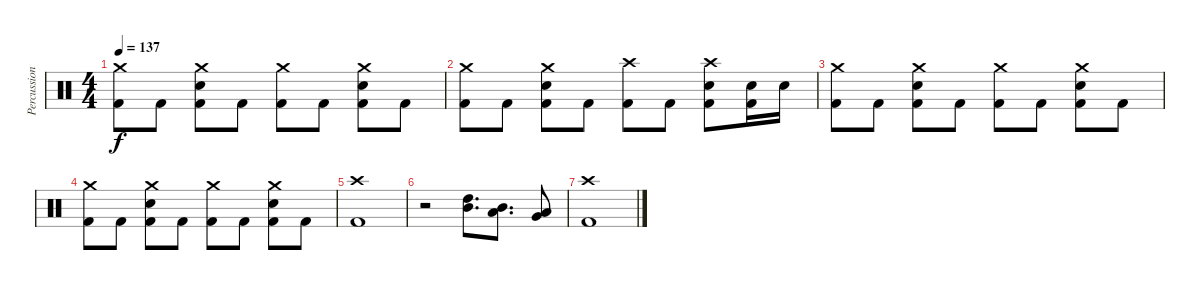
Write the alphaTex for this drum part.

\track ("Percussion" "Percussion") {instrument percussion}
\staff {score}
\articulation defaults
\ts (4 4)
\tempo 137
\clef neutral
\ks c
("Crash medium (hit)" "Kick (hit) 2").8{dy f} "Kick (hit) 2".8 ("Crash medium (hit)" "Snare (hit) 2" "Kick (hit) 2").8 "Kick (hit) 2".8 ("Crash medium (hit)" "Kick (hit) 2").8 "Kick (hit) 2".8 ("Crash medium (hit)" "Snare (hit) 2" "Kick (hit) 2").8 "Kick (hit) 2".8 |
("Crash medium (hit)" "Kick (hit) 2").8 "Kick (hit) 2".8 ("Crash medium (hit)" "Snare (hit) 2" "Kick (hit) 2").8 "Kick (hit) 2".8 ("Crash high (hit)" "Kick (hit) 2").8 "Kick (hit) 2".8 ("Crash high (hit)" "Snare (hit) 2" "Kick (hit) 2").8 ("Snare (hit) 2" "Kick (hit) 2").16 "Snare (hit) 2".16 |
("Crash medium (hit)" "Kick (hit) 2").8 "Kick (hit) 2".8 ("Crash medium (hit)" "Snare (hit) 2" "Kick (hit) 2").8 "Kick (hit) 2".8 ("Crash medium (hit)" "Kick (hit) 2").8 "Kick (hit) 2".8 ("Crash medium (hit)" "Snare (hit) 2" "Kick (hit) 2").8 "Kick (hit) 2".8 |
("Crash medium (hit)" "Kick (hit) 2").8 "Kick (hit) 2".8 ("Crash medium (hit)" "Snare (hit) 2" "Kick (hit) 2").8 "Kick (hit) 2".8 ("Crash medium (hit)" "Kick (hit) 2").8 "Kick (hit) 2".8 ("Crash medium (hit)" "Snare (hit) 2" "Kick (hit) 2").8 "Kick (hit) 2".8 |
("Crash high (hit)" "Kick (hit) 2").1 |
r.2 ("High Tom (hit)" "Mid Tom (hit)").8{d} ("Mid Tom (hit)" "Low Tom (hit)").8{d} ("Low Tom (hit)" "Very Low Tom (hit)").8 |
("Crash high (hit)" "Kick (hit) 2").1
